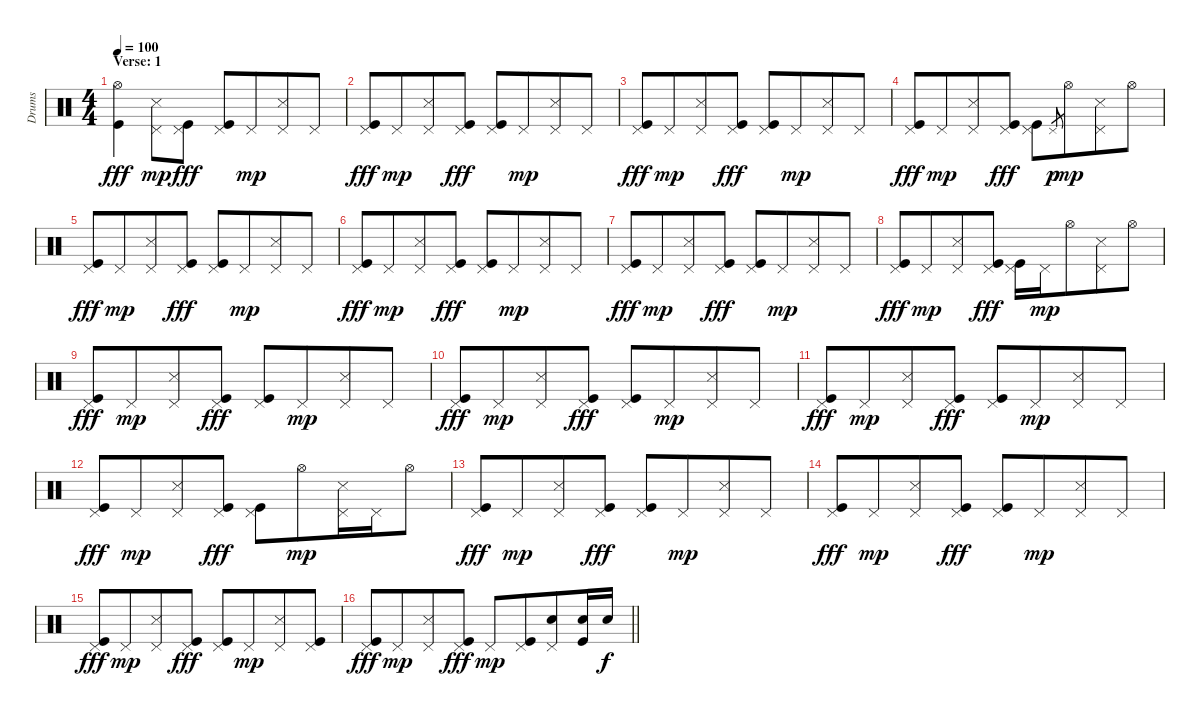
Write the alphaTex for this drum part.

\track ("Drums" "Drums") {instrument percussion}
\staff {score}
\articulation defaults
\ts (4 4)
\section ("" "Verse: 1")
\tempo 100
\clef neutral
\ks c
("Hi-Hat (open)" "Kick (hit)").4{dy fff beam merge} ("Pedal Hi-Hat (hit)" "Snare (side stick) 3").8{dy mp} ("Pedal Hi-Hat (hit)" "Kick (hit)").8{dy fff} ("Pedal Hi-Hat (hit)" "Kick (hit)").8 "Pedal Hi-Hat (hit)".8{dy mp beam merge} ("Pedal Hi-Hat (hit)" "Snare (side stick) 3").8 "Pedal Hi-Hat (hit)".8 |
("Pedal Hi-Hat (hit)" "Kick (hit)").8{dy fff} "Pedal Hi-Hat (hit)".8{dy mp beam merge} ("Pedal Hi-Hat (hit)" "Snare (side stick) 3").8 ("Pedal Hi-Hat (hit)" "Kick (hit)").8{dy fff} ("Pedal Hi-Hat (hit)" "Kick (hit)").8 "Pedal Hi-Hat (hit)".8{dy mp beam merge} ("Pedal Hi-Hat (hit)" "Snare (side stick) 3").8 "Pedal Hi-Hat (hit)".8 |
("Pedal Hi-Hat (hit)" "Kick (hit)").8{dy fff} "Pedal Hi-Hat (hit)".8{dy mp beam merge} ("Pedal Hi-Hat (hit)" "Snare (side stick) 3").8 ("Pedal Hi-Hat (hit)" "Kick (hit)").8{dy fff} ("Pedal Hi-Hat (hit)" "Kick (hit)").8 "Pedal Hi-Hat (hit)".8{dy mp beam merge} ("Pedal Hi-Hat (hit)" "Snare (side stick) 3").8 "Pedal Hi-Hat (hit)".8 |
("Pedal Hi-Hat (hit)" "Kick (hit)").8{dy fff} "Pedal Hi-Hat (hit)".8{dy mp beam merge} ("Pedal Hi-Hat (hit)" "Snare (side stick) 3").8 ("Pedal Hi-Hat (hit)" "Kick (hit)").8{dy fff} ("Pedal Hi-Hat (hit)" "Kick (hit)").8 "Pedal Hi-Hat (hit)"{h}.8{gr dy p} "Hi-Hat (open)".8{dy mp beam merge} ("Pedal Hi-Hat (hit)" "Snare (side stick) 3").8 "Hi-Hat (open)".8 |
("Pedal Hi-Hat (hit)" "Kick (hit)").8{dy fff} "Pedal Hi-Hat (hit)".8{dy mp beam merge} ("Pedal Hi-Hat (hit)" "Snare (side stick) 3").8 ("Pedal Hi-Hat (hit)" "Kick (hit)").8{dy fff} ("Pedal Hi-Hat (hit)" "Kick (hit)").8 "Pedal Hi-Hat (hit)".8{dy mp beam merge} ("Pedal Hi-Hat (hit)" "Snare (side stick) 3").8 "Pedal Hi-Hat (hit)".8 |
("Pedal Hi-Hat (hit)" "Kick (hit)").8{dy fff} "Pedal Hi-Hat (hit)".8{dy mp beam merge} ("Pedal Hi-Hat (hit)" "Snare (side stick) 3").8 ("Pedal Hi-Hat (hit)" "Kick (hit)").8{dy fff} ("Pedal Hi-Hat (hit)" "Kick (hit)").8 "Pedal Hi-Hat (hit)".8{dy mp beam merge} ("Pedal Hi-Hat (hit)" "Snare (side stick) 3").8 "Pedal Hi-Hat (hit)".8 |
("Pedal Hi-Hat (hit)" "Kick (hit)").8{dy fff} "Pedal Hi-Hat (hit)".8{dy mp beam merge} ("Pedal Hi-Hat (hit)" "Snare (side stick) 3").8 ("Pedal Hi-Hat (hit)" "Kick (hit)").8{dy fff} ("Pedal Hi-Hat (hit)" "Kick (hit)").8 "Pedal Hi-Hat (hit)".8{dy mp beam merge} ("Pedal Hi-Hat (hit)" "Snare (side stick) 3").8 "Pedal Hi-Hat (hit)".8 |
("Pedal Hi-Hat (hit)" "Kick (hit)").8{dy fff} "Pedal Hi-Hat (hit)".8{dy mp beam merge} ("Pedal Hi-Hat (hit)" "Snare (side stick) 3").8 ("Pedal Hi-Hat (hit)" "Kick (hit)").8{dy fff} ("Pedal Hi-Hat (hit)" "Kick (hit)").16 "Pedal Hi-Hat (hit)".16{dy mp} "Hi-Hat (open)".8{beam merge} ("Pedal Hi-Hat (hit)" "Snare (side stick) 3").8 "Hi-Hat (open)".8 |
("Pedal Hi-Hat (hit)" "Kick (hit)").8{dy fff} "Pedal Hi-Hat (hit)".8{dy mp beam merge} ("Pedal Hi-Hat (hit)" "Snare (side stick) 3").8 ("Pedal Hi-Hat (hit)" "Kick (hit)").8{dy fff} ("Pedal Hi-Hat (hit)" "Kick (hit)").8 "Pedal Hi-Hat (hit)".8{dy mp beam merge} ("Pedal Hi-Hat (hit)" "Snare (side stick) 3").8 "Pedal Hi-Hat (hit)".8 |
("Pedal Hi-Hat (hit)" "Kick (hit)").8{dy fff} "Pedal Hi-Hat (hit)".8{dy mp beam merge} ("Pedal Hi-Hat (hit)" "Snare (side stick) 3").8 ("Pedal Hi-Hat (hit)" "Kick (hit)").8{dy fff} ("Pedal Hi-Hat (hit)" "Kick (hit)").8 "Pedal Hi-Hat (hit)".8{dy mp beam merge} ("Pedal Hi-Hat (hit)" "Snare (side stick) 3").8 "Pedal Hi-Hat (hit)".8 |
("Pedal Hi-Hat (hit)" "Kick (hit)").8{dy fff} "Pedal Hi-Hat (hit)".8{dy mp beam merge} ("Pedal Hi-Hat (hit)" "Snare (side stick) 3").8 ("Pedal Hi-Hat (hit)" "Kick (hit)").8{dy fff} ("Pedal Hi-Hat (hit)" "Kick (hit)").8 "Pedal Hi-Hat (hit)".8{dy mp beam merge} ("Pedal Hi-Hat (hit)" "Snare (side stick) 3").8 "Pedal Hi-Hat (hit)".8 |
("Pedal Hi-Hat (hit)" "Kick (hit)").8{dy fff} "Pedal Hi-Hat (hit)".8{dy mp beam merge} ("Pedal Hi-Hat (hit)" "Snare (side stick) 3").8 ("Pedal Hi-Hat (hit)" "Kick (hit)").8{dy fff} ("Pedal Hi-Hat (hit)" "Kick (hit)").8 "Hi-Hat (open)".8{dy mp beam merge} ("Pedal Hi-Hat (hit)" "Snare (side stick) 3").16 "Pedal Hi-Hat (hit)".16 "Hi-Hat (open)".8 |
("Pedal Hi-Hat (hit)" "Kick (hit)").8{dy fff} "Pedal Hi-Hat (hit)".8{dy mp beam merge} ("Pedal Hi-Hat (hit)" "Snare (side stick) 3").8 ("Pedal Hi-Hat (hit)" "Kick (hit)").8{dy fff} ("Pedal Hi-Hat (hit)" "Kick (hit)").8 "Pedal Hi-Hat (hit)".8{dy mp beam merge} ("Pedal Hi-Hat (hit)" "Snare (side stick) 3").8 "Pedal Hi-Hat (hit)".8 |
("Pedal Hi-Hat (hit)" "Kick (hit)").8{dy fff} "Pedal Hi-Hat (hit)".8{dy mp beam merge} ("Pedal Hi-Hat (hit)" "Snare (side stick) 3").8 ("Pedal Hi-Hat (hit)" "Kick (hit)").8{dy fff} ("Pedal Hi-Hat (hit)" "Kick (hit)").8 "Pedal Hi-Hat (hit)".8{dy mp beam merge} ("Pedal Hi-Hat (hit)" "Snare (side stick) 3").8 "Pedal Hi-Hat (hit)".8 |
("Pedal Hi-Hat (hit)" "Kick (hit)").8{dy fff} "Pedal Hi-Hat (hit)".8{dy mp beam merge} ("Pedal Hi-Hat (hit)" "Snare (side stick) 3").8 ("Pedal Hi-Hat (hit)" "Kick (hit)").8{dy fff} ("Pedal Hi-Hat (hit)" "Kick (hit)").8 "Pedal Hi-Hat (hit)".8{dy mp beam merge} ("Pedal Hi-Hat (hit)" "Snare (side stick) 3").8 ("Pedal Hi-Hat (hit)" "Kick (hit)").8 |
\barLineRight lightlight
("Pedal Hi-Hat (hit)" "Kick (hit)").8{dy fff} "Pedal Hi-Hat (hit)".8{dy mp beam merge} ("Pedal Hi-Hat (hit)" "Snare (side stick) 3").8 ("Pedal Hi-Hat (hit)" "Kick (hit)").8{dy fff} "Pedal Hi-Hat (hit)".8{dy mp} ("Pedal Hi-Hat (hit)" "Kick (hit)").8{beam merge} ("Pedal Hi-Hat (hit)" "Snare (hit) 2").8 ("Snare (hit) 2" "Kick (hit)").16 "Snare (hit) 2".16{dy f}
